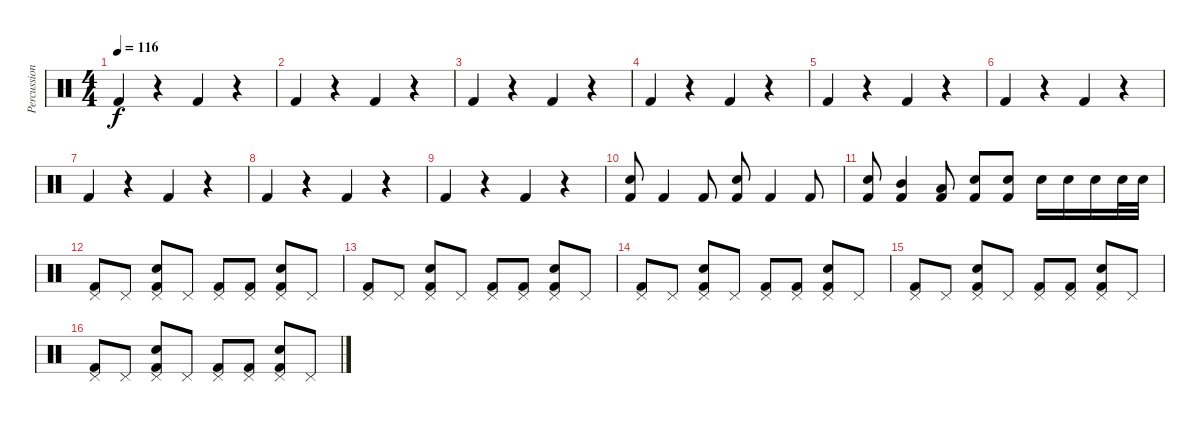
\track ("Percussion" "Percussion") {instrument percussion}
\staff {score}
\articulation defaults
\ts (4 4)
\tempo 116
\clef neutral
\ks c "Kick (hit) 2".4{dy f}
r.4 "Kick (hit) 2".4 r.4 |
"Kick (hit) 2".4 r.4 "Kick (hit) 2".4 r.4 |
"Kick (hit) 2".4 r.4 "Kick (hit) 2".4 r.4 |
"Kick (hit) 2".4 r.4 "Kick (hit) 2".4 r.4 |
"Kick (hit) 2".4 r.4 "Kick (hit) 2".4 r.4 |
"Kick (hit) 2".4 r.4 "Kick (hit) 2".4 r.4 |
"Kick (hit) 2".4 r.4 "Kick (hit) 2".4 r.4 |
"Kick (hit) 2".4 r.4 "Kick (hit) 2".4 r.4 |
"Kick (hit) 2".4 r.4 "Kick (hit) 2".4 r.4 |
("Snare (hit) 2" "Kick (hit) 2").8 "Kick (hit) 2".4 "Kick (hit) 2".8 ("Snare (hit) 2" "Kick (hit) 2").8 "Kick (hit) 2".4 "Kick (hit) 2".8 |
("Snare (hit) 2" "Kick (hit) 2").8 ("Mid Tom (hit)" "Kick (hit) 2").4 ("Low Tom (hit)" "Kick (hit) 2").8 ("Snare (hit) 2" "Kick (hit) 2").8 ("Snare (hit) 2" "Kick (hit) 2").8 "Snare (hit) 2".16 "Snare (hit) 2".16 "Snare (hit) 2".16 "Snare (hit) 2".32 "Snare (hit) 2".32 |
("Pedal Hi-Hat (hit)" "Kick (hit) 2").8 "Pedal Hi-Hat (hit)".8 ("Pedal Hi-Hat (hit)" "Snare (hit) 2" "Kick (hit) 2").8 "Pedal Hi-Hat (hit)".8 ("Pedal Hi-Hat (hit)" "Kick (hit) 2").8 ("Pedal Hi-Hat (hit)" "Kick (hit) 2").8 ("Pedal Hi-Hat (hit)" "Snare (hit) 2" "Kick (hit) 2").8 "Pedal Hi-Hat (hit)".8 |
("Pedal Hi-Hat (hit)" "Kick (hit) 2").8 "Pedal Hi-Hat (hit)".8 ("Pedal Hi-Hat (hit)" "Snare (hit) 2" "Kick (hit) 2").8 "Pedal Hi-Hat (hit)".8 ("Pedal Hi-Hat (hit)" "Kick (hit) 2").8 ("Pedal Hi-Hat (hit)" "Kick (hit) 2").8 ("Pedal Hi-Hat (hit)" "Snare (hit) 2" "Kick (hit) 2").8 "Pedal Hi-Hat (hit)".8 |
("Pedal Hi-Hat (hit)" "Kick (hit) 2").8 "Pedal Hi-Hat (hit)".8 ("Pedal Hi-Hat (hit)" "Snare (hit) 2" "Kick (hit) 2").8 "Pedal Hi-Hat (hit)".8 ("Pedal Hi-Hat (hit)" "Kick (hit) 2").8 ("Pedal Hi-Hat (hit)" "Kick (hit) 2").8 ("Pedal Hi-Hat (hit)" "Snare (hit) 2" "Kick (hit) 2").8 "Pedal Hi-Hat (hit)".8 |
("Pedal Hi-Hat (hit)" "Kick (hit) 2").8 "Pedal Hi-Hat (hit)".8 ("Pedal Hi-Hat (hit)" "Snare (hit) 2" "Kick (hit) 2").8 "Pedal Hi-Hat (hit)".8 ("Pedal Hi-Hat (hit)" "Kick (hit) 2").8 ("Pedal Hi-Hat (hit)" "Kick (hit) 2").8 ("Pedal Hi-Hat (hit)" "Snare (hit) 2" "Kick (hit) 2").8 "Pedal Hi-Hat (hit)".8 |
("Pedal Hi-Hat (hit)" "Kick (hit) 2").8 "Pedal Hi-Hat (hit)".8 ("Pedal Hi-Hat (hit)" "Snare (hit) 2" "Kick (hit) 2").8 "Pedal Hi-Hat (hit)".8 ("Pedal Hi-Hat (hit)" "Kick (hit) 2").8 ("Pedal Hi-Hat (hit)" "Kick (hit) 2").8 ("Pedal Hi-Hat (hit)" "Snare (hit) 2" "Kick (hit) 2").8 "Pedal Hi-Hat (hit)".8
